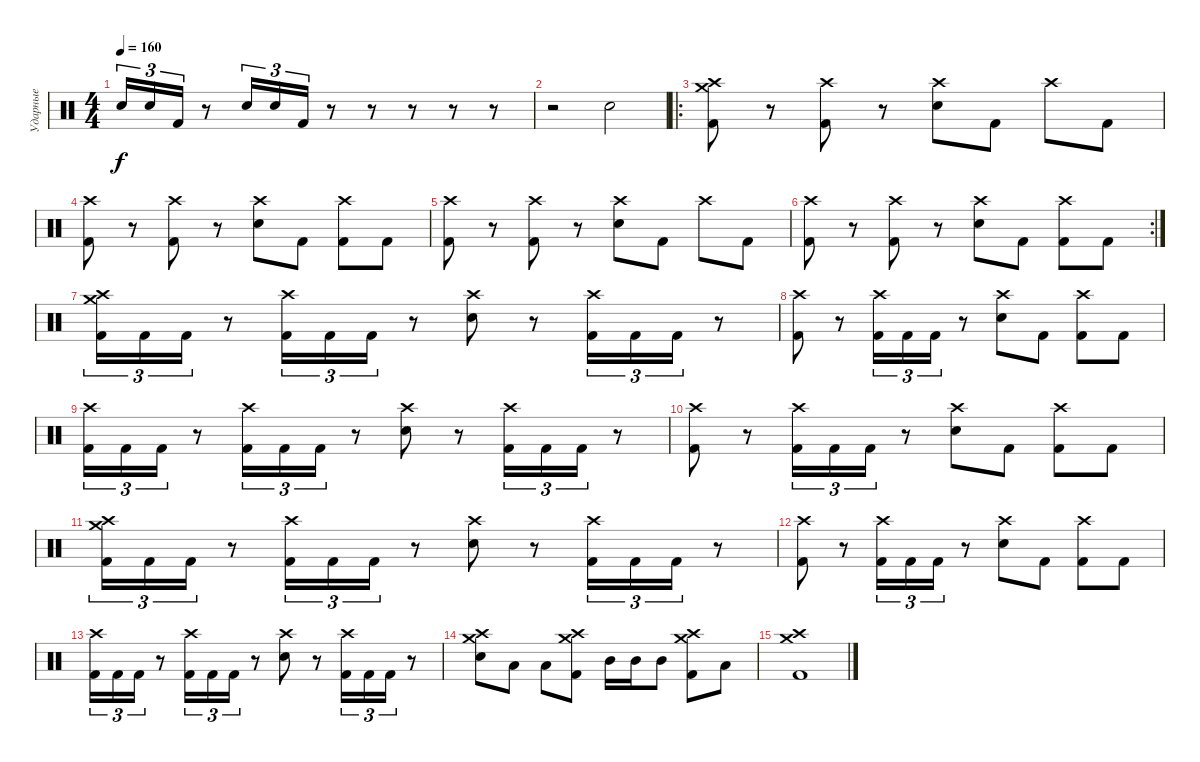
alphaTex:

\track ("Ударные" "Ударные") {instrument percussion}
\staff
\articulation defaults
\ts (4 4)
\tempo 160
\clef neutral
\ks c "Snare (hit) 2".16{tu (3 2) dy f} "Snare (hit) 2".16{tu (3 2)} "Kick (hit) 2".16{tu (3 2)}
r.8 "Snare (hit) 2".16{tu (3 2)} "Snare (hit) 2".16{tu (3 2)} "Kick (hit) 2".16{tu (3 2)} r.8 r.8 r.8 r.8 r.8 |
r.2 "Snare (hit) 2".2 |
\ro
("Crash high (hit)" "Crash medium (hit)" "Kick (hit) 2").8 r.8 ("Crash high (hit)" "Kick (hit) 2").8 r.8 ("Crash high (hit)" "Snare (hit) 2").8 "Kick (hit) 2".8 "Crash high (hit)".8 "Kick (hit) 2".8 |
("Crash high (hit)" "Kick (hit) 2").8 r.8 ("Crash high (hit)" "Kick (hit) 2").8 r.8 ("Crash high (hit)" "Snare (hit) 2").8 "Kick (hit) 2".8 ("Crash high (hit)" "Kick (hit) 2").8 "Kick (hit) 2".8 |
("Crash high (hit)" "Kick (hit) 2").8 r.8 ("Crash high (hit)" "Kick (hit) 2").8 r.8 ("Crash high (hit)" "Snare (hit) 2").8 "Kick (hit) 2".8 "Crash high (hit)".8 "Kick (hit) 2".8 |
\rc 2
("Crash high (hit)" "Kick (hit) 2").8 r.8 ("Crash high (hit)" "Kick (hit) 2").8 r.8 ("Crash high (hit)" "Snare (hit) 2").8 "Kick (hit) 2".8 ("Crash high (hit)" "Kick (hit) 2").8 "Kick (hit) 2".8 |
("Crash high (hit)" "Crash medium (hit)" "Kick (hit) 2").16{tu (3 2)} "Kick (hit) 2".16{tu (3 2)} "Kick (hit) 2".16{tu (3 2)} r.8 ("Crash high (hit)" "Kick (hit) 2").16{tu (3 2)} "Kick (hit) 2".16{tu (3 2)} "Kick (hit) 2".16{tu (3 2)} r.8 ("Crash high (hit)" "Snare (hit) 2").8 r.8 ("Crash high (hit)" "Kick (hit) 2").16{tu (3 2)} "Kick (hit) 2".16{tu (3 2)} "Kick (hit) 2".16{tu (3 2)} r.8 |
("Crash high (hit)" "Kick (hit) 2").8 r.8 ("Crash high (hit)" "Kick (hit) 2").16{tu (3 2)} "Kick (hit) 2".16{tu (3 2)} "Kick (hit) 2".16{tu (3 2)} r.8 ("Crash high (hit)" "Snare (hit) 2").8 "Kick (hit) 2".8 ("Crash high (hit)" "Kick (hit) 2").8 "Kick (hit) 2".8 |
("Crash high (hit)" "Kick (hit) 2").16{tu (3 2)} "Kick (hit) 2".16{tu (3 2)} "Kick (hit) 2".16{tu (3 2)} r.8 ("Crash high (hit)" "Kick (hit) 2").16{tu (3 2)} "Kick (hit) 2".16{tu (3 2)} "Kick (hit) 2".16{tu (3 2)} r.8 ("Crash high (hit)" "Snare (hit) 2").8 r.8 ("Crash high (hit)" "Kick (hit) 2").16{tu (3 2)} "Kick (hit) 2".16{tu (3 2)} "Kick (hit) 2".16{tu (3 2)} r.8 |
("Crash high (hit)" "Kick (hit) 2").8 r.8 ("Crash high (hit)" "Kick (hit) 2").16{tu (3 2)} "Kick (hit) 2".16{tu (3 2)} "Kick (hit) 2".16{tu (3 2)} r.8 ("Crash high (hit)" "Snare (hit) 2").8 "Kick (hit) 2".8 ("Crash high (hit)" "Kick (hit) 2").8 "Kick (hit) 2".8 |
("Crash high (hit)" "Crash medium (hit)" "Kick (hit) 2").16{tu (3 2)} "Kick (hit) 2".16{tu (3 2)} "Kick (hit) 2".16{tu (3 2)} r.8 ("Crash high (hit)" "Kick (hit) 2").16{tu (3 2)} "Kick (hit) 2".16{tu (3 2)} "Kick (hit) 2".16{tu (3 2)} r.8 ("Crash high (hit)" "Snare (hit) 2").8 r.8 ("Crash high (hit)" "Kick (hit) 2").16{tu (3 2)} "Kick (hit) 2".16{tu (3 2)} "Kick (hit) 2".16{tu (3 2)} r.8 |
("Crash high (hit)" "Kick (hit) 2").8 r.8 ("Crash high (hit)" "Kick (hit) 2").16{tu (3 2)} "Kick (hit) 2".16{tu (3 2)} "Kick (hit) 2".16{tu (3 2)} r.8 ("Crash high (hit)" "Snare (hit) 2").8 "Kick (hit) 2".8 ("Crash high (hit)" "Kick (hit) 2").8 "Kick (hit) 2".8 |
("Crash high (hit)" "Kick (hit) 2").16{tu (3 2)} "Kick (hit) 2".16{tu (3 2)} "Kick (hit) 2".16{tu (3 2)} r.8 ("Crash high (hit)" "Kick (hit) 2").16{tu (3 2)} "Kick (hit) 2".16{tu (3 2)} "Kick (hit) 2".16{tu (3 2)} r.8 ("Crash high (hit)" "Snare (hit) 2").8 r.8 ("Crash high (hit)" "Kick (hit) 2").16{tu (3 2)} "Kick (hit) 2".16{tu (3 2)} "Kick (hit) 2".16{tu (3 2)} r.8 |
("Crash medium (hit)" "Crash high (hit)" "Snare (hit) 2").8 "Low Tom (hit)".8 "Low Tom (hit)".8 ("Crash medium (hit)" "Crash high (hit)" "Kick (hit) 2").8 "Mid Tom (hit)".16 "Mid Tom (hit)".16 "Mid Tom (hit)".8 ("Crash medium (hit)" "Crash high (hit)" "Kick (hit) 2").8 "Low Floor Tom (hit)".8 |
("Crash high (hit)" "Crash medium (hit)" "Kick (hit) 2").1
